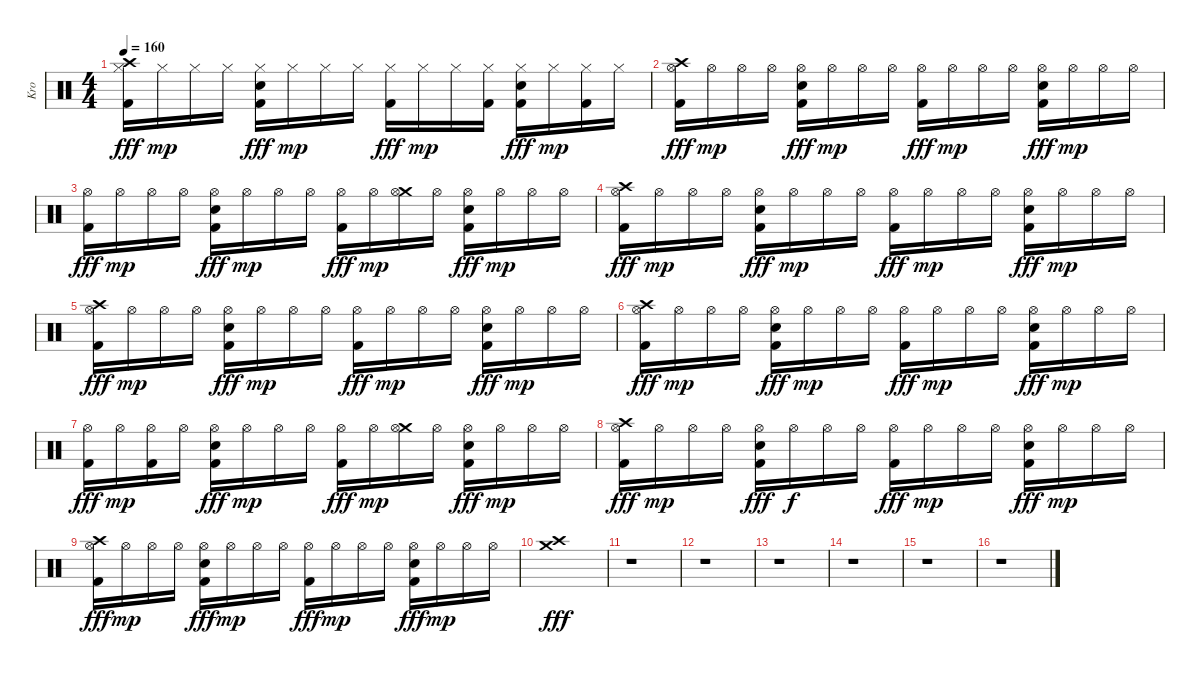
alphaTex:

\track ("Kro" "Kro") {instrument percussion}
\staff {score}
\articulation defaults
\ts (4 4)
\tempo 160
\clef neutral
\ks c
("Crash high (hit)" "Hi-Hat (closed)" "Kick (hit) 2").16{dy fff} "Hi-Hat (closed)".16{dy mp} "Hi-Hat (closed)".16 "Hi-Hat (closed)".16 ("Snare (hit) 2" "Hi-Hat (closed)" "Kick (hit) 2").16{dy fff} "Hi-Hat (closed)".16{dy mp} "Hi-Hat (closed)".16 "Hi-Hat (closed)".16 ("Hi-Hat (closed)" "Kick (hit) 2").16{dy fff} "Hi-Hat (closed)".16{dy mp} "Hi-Hat (closed)".16 ("Hi-Hat (closed)" "Kick (hit) 2").16 ("Snare (hit) 2" "Hi-Hat (closed)" "Kick (hit) 2").16{dy fff} "Hi-Hat (closed)".16{dy mp} ("Hi-Hat (closed)" "Kick (hit) 2").16 "Hi-Hat (closed)".16 |
("Crash high (hit)" "Hi-Hat (open)" "Kick (hit) 2").16{dy fff} "Hi-Hat (open)".16{dy mp} "Hi-Hat (open)".16 "Hi-Hat (open)".16 ("Snare (hit) 2" "Hi-Hat (open)" "Kick (hit) 2").16{dy fff} "Hi-Hat (open)".16{dy mp} "Hi-Hat (open)".16 "Hi-Hat (open)".16 ("Hi-Hat (open)" "Kick (hit) 2").16{dy fff} "Hi-Hat (open)".16{dy mp} "Hi-Hat (open)".16 "Hi-Hat (open)".16 ("Snare (hit) 2" "Hi-Hat (open)" "Kick (hit) 2").16{dy fff} "Hi-Hat (open)".16{dy mp} "Hi-Hat (open)".16 "Hi-Hat (open)".16 |
("Hi-Hat (open)" "Kick (hit) 2").16{dy fff} "Hi-Hat (open)".16{dy mp} "Hi-Hat (open)".16 "Hi-Hat (open)".16 ("Snare (hit) 2" "Hi-Hat (open)" "Kick (hit) 2").16{dy fff} "Hi-Hat (open)".16{dy mp} "Hi-Hat (open)".16 "Hi-Hat (open)".16 ("Hi-Hat (open)" "Kick (hit) 2").16{dy fff} "Hi-Hat (open)".16{dy mp} ("Crash medium (hit)" "Hi-Hat (open)").16 "Hi-Hat (open)".16 ("Snare (hit) 2" "Hi-Hat (open)" "Kick (hit) 2").16{dy fff} "Hi-Hat (open)".16{dy mp} "Hi-Hat (open)".16 "Hi-Hat (open)".16 |
("Crash high (hit)" "Hi-Hat (open)" "Kick (hit) 2").16{dy fff} "Hi-Hat (open)".16{dy mp} "Hi-Hat (open)".16 "Hi-Hat (open)".16 ("Snare (hit) 2" "Hi-Hat (open)" "Kick (hit) 2").16{dy fff} "Hi-Hat (open)".16{dy mp} "Hi-Hat (open)".16 "Hi-Hat (open)".16 ("Hi-Hat (open)" "Kick (hit) 2").16{dy fff} "Hi-Hat (open)".16{dy mp} "Hi-Hat (open)".16 "Hi-Hat (open)".16 ("Snare (hit) 2" "Hi-Hat (open)" "Kick (hit) 2").16{dy fff} "Hi-Hat (open)".16{dy mp} "Hi-Hat (open)".16 "Hi-Hat (open)".16 |
("Crash high (hit)" "Hi-Hat (open)" "Kick (hit) 2").16{dy fff} "Hi-Hat (open)".16{dy mp} "Hi-Hat (open)".16 "Hi-Hat (open)".16 ("Snare (hit) 2" "Hi-Hat (open)" "Kick (hit) 2").16{dy fff} "Hi-Hat (open)".16{dy mp} "Hi-Hat (open)".16 "Hi-Hat (open)".16 ("Hi-Hat (open)" "Kick (hit) 2").16{dy fff} "Hi-Hat (open)".16{dy mp} "Hi-Hat (open)".16 "Hi-Hat (open)".16 ("Snare (hit) 2" "Hi-Hat (open)" "Kick (hit) 2").16{dy fff} "Hi-Hat (open)".16{dy mp} "Hi-Hat (open)".16 "Hi-Hat (open)".16 |
("Crash high (hit)" "Hi-Hat (open)" "Kick (hit) 2").16{dy fff} "Hi-Hat (open)".16{dy mp} "Hi-Hat (open)".16 "Hi-Hat (open)".16 ("Snare (hit) 2" "Hi-Hat (open)" "Kick (hit) 2").16{dy fff} "Hi-Hat (open)".16{dy mp} "Hi-Hat (open)".16 "Hi-Hat (open)".16 ("Hi-Hat (open)" "Kick (hit) 2").16{dy fff} "Hi-Hat (open)".16{dy mp} "Hi-Hat (open)".16 "Hi-Hat (open)".16 ("Snare (hit) 2" "Hi-Hat (open)" "Kick (hit) 2").16{dy fff} "Hi-Hat (open)".16{dy mp} "Hi-Hat (open)".16 "Hi-Hat (open)".16 |
("Hi-Hat (open)" "Kick (hit) 2").16{dy fff} "Hi-Hat (open)".16{dy mp} ("Hi-Hat (open)" "Kick (hit) 2").16 "Hi-Hat (open)".16 ("Snare (hit) 2" "Hi-Hat (open)" "Kick (hit) 2").16{dy fff} "Hi-Hat (open)".16{dy mp} "Hi-Hat (open)".16 "Hi-Hat (open)".16 ("Hi-Hat (open)" "Kick (hit) 2").16{dy fff} "Hi-Hat (open)".16{dy mp} ("Crash medium (hit)" "Hi-Hat (open)").16 "Hi-Hat (open)".16 ("Snare (hit) 2" "Hi-Hat (open)" "Kick (hit) 2").16{dy fff} "Hi-Hat (open)".16{dy mp} "Hi-Hat (open)".16 "Hi-Hat (open)".16 |
("Crash high (hit)" "Hi-Hat (open)" "Kick (hit) 2").16{dy fff} "Hi-Hat (open)".16{dy mp} "Hi-Hat (open)".16 "Hi-Hat (open)".16 ("Snare (hit) 2" "Hi-Hat (open)" "Kick (hit) 2").16{dy fff} "Hi-Hat (open)".16{dy f} "Hi-Hat (open)".16 "Hi-Hat (open)".16 ("Hi-Hat (open)" "Kick (hit) 2").16{dy fff} "Hi-Hat (open)".16{dy mp} "Hi-Hat (open)".16 "Hi-Hat (open)".16 ("Snare (hit) 2" "Hi-Hat (open)" "Kick (hit) 2").16{dy fff} "Hi-Hat (open)".16{dy mp} "Hi-Hat (open)".16 "Hi-Hat (open)".16 |
("Crash high (hit)" "Hi-Hat (open)" "Kick (hit) 2").16{dy fff} "Hi-Hat (open)".16{dy mp} "Hi-Hat (open)".16 "Hi-Hat (open)".16 ("Snare (hit) 2" "Hi-Hat (open)" "Kick (hit) 2").16{dy fff} "Hi-Hat (open)".16{dy mp} "Hi-Hat (open)".16 "Hi-Hat (open)".16 ("Hi-Hat (open)" "Kick (hit) 2").16{dy fff} "Hi-Hat (open)".16{dy mp} "Hi-Hat (open)".16 "Hi-Hat (open)".16 ("Snare (hit) 2" "Hi-Hat (open)" "Kick (hit) 2").16{dy fff} "Hi-Hat (open)".16{dy mp} "Hi-Hat (open)".16 "Hi-Hat (open)".16 |
("Crash high (hit)" "Crash medium (hit)").1{dy fff} |
r.1 |
r.1 |
r.1 |
r.1 |
r.1 |
r.1
